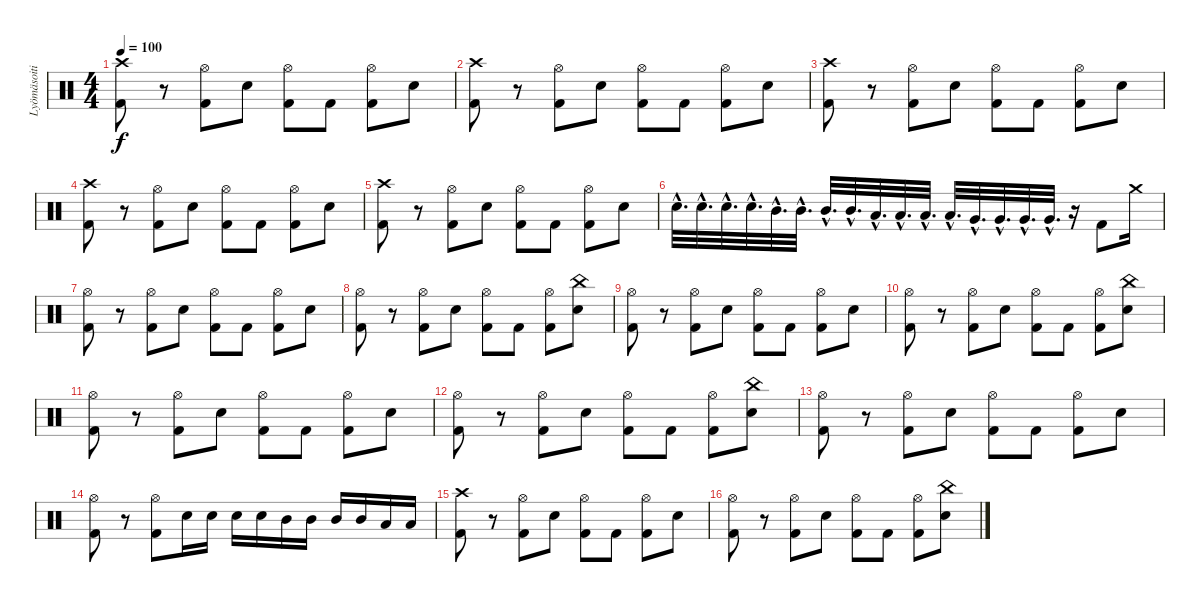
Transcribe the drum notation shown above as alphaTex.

\track ("Lyömäsoitin" "Lyömäsoiti") {instrument percussion}
\staff {score}
\articulation defaults
\ts (4 4)
\tempo 100
\clef neutral
\ks c
("Crash high (hit)" "Kick (hit) 2").8{dy f} r.8 ("Hi-Hat (open)" "Kick (hit) 2").8 "Snare (hit) 2".8 ("Hi-Hat (open)" "Kick (hit) 2").8 "Kick (hit) 2".8 ("Hi-Hat (open)" "Kick (hit) 2").8 "Snare (hit) 2".8 |
("Crash high (hit)" "Kick (hit) 2").8 r.8 ("Hi-Hat (open)" "Kick (hit) 2").8 "Snare (hit) 2".8 ("Hi-Hat (open)" "Kick (hit) 2").8 "Kick (hit) 2".8 ("Hi-Hat (open)" "Kick (hit) 2").8 "Snare (hit) 2".8 |
("Crash high (hit)" "Kick (hit) 2").8 r.8 ("Hi-Hat (open)" "Kick (hit) 2").8 "Snare (hit) 2".8 ("Hi-Hat (open)" "Kick (hit) 2").8 "Kick (hit) 2".8 ("Hi-Hat (open)" "Kick (hit) 2").8 "Snare (hit) 2".8 |
("Crash high (hit)" "Kick (hit) 2").8 r.8 ("Hi-Hat (open)" "Kick (hit) 2").8 "Snare (hit) 2".8 ("Hi-Hat (open)" "Kick (hit) 2").8 "Kick (hit) 2".8 ("Hi-Hat (open)" "Kick (hit) 2").8 "Snare (hit) 2".8 |
("Crash high (hit)" "Kick (hit) 2").8 r.8 ("Hi-Hat (open)" "Kick (hit) 2").8 "Snare (hit) 2".8 ("Hi-Hat (open)" "Kick (hit) 2").8 "Kick (hit) 2".8 ("Hi-Hat (open)" "Kick (hit) 2").8 "Snare (hit) 2".8 |
"Snare (hit) 2"{hac}.32{d} "Snare (hit) 2"{hac}.32{d} "Snare (hit) 2"{hac}.32{d} "Snare (hit) 2"{hac}.32{d} "Mid Tom (hit)"{hac}.32{d} "Mid Tom (hit)"{hac}.32{d} "Mid Tom (hit)"{hac}.32{d} "Mid Tom (hit)"{hac}.32{d} "Low Tom (hit)"{hac}.32{d} "Low Tom (hit)"{hac}.32{d} "Low Tom (hit)"{hac}.32{d} "Low Tom (hit)"{hac}.32{d} "Very Low Tom (hit)"{hac}.32{d} "Very Low Tom (hit)"{hac}.32{d} "Very Low Tom (hit)"{hac}.32{d} "Very Low Tom (hit)"{hac}.32{d} r.16 "Kick (hit) 2".8 "Crash medium (hit)".16 |
("Hi-Hat (open)" "Kick (hit) 2").8 r.8 ("Hi-Hat (open)" "Kick (hit) 2").8 "Snare (hit) 2".8 ("Hi-Hat (open)" "Kick (hit) 2").8 "Kick (hit) 2".8 ("Hi-Hat (open)" "Kick (hit) 2").8 "Snare (hit) 2".8 |
("Hi-Hat (open)" "Kick (hit) 2").8 r.8 ("Hi-Hat (open)" "Kick (hit) 2").8 "Snare (hit) 2".8 ("Hi-Hat (open)" "Kick (hit) 2").8 "Kick (hit) 2".8 ("Hi-Hat (open)" "Kick (hit) 2").8 ("China (hit)" "Snare (hit) 2").8 |
("Hi-Hat (open)" "Kick (hit) 2").8 r.8 ("Hi-Hat (open)" "Kick (hit) 2").8 "Snare (hit) 2".8 ("Hi-Hat (open)" "Kick (hit) 2").8 "Kick (hit) 2".8 ("Hi-Hat (open)" "Kick (hit) 2").8 "Snare (hit) 2".8 |
("Hi-Hat (open)" "Kick (hit) 2").8 r.8 ("Hi-Hat (open)" "Kick (hit) 2").8 "Snare (hit) 2".8 ("Hi-Hat (open)" "Kick (hit) 2").8 "Kick (hit) 2".8 ("Hi-Hat (open)" "Kick (hit) 2").8 ("China (hit)" "Snare (hit) 2").8 |
("Hi-Hat (open)" "Kick (hit) 2").8 r.8 ("Hi-Hat (open)" "Kick (hit) 2").8 "Snare (hit) 2".8 ("Hi-Hat (open)" "Kick (hit) 2").8 "Kick (hit) 2".8 ("Hi-Hat (open)" "Kick (hit) 2").8 "Snare (hit) 2".8 |
("Hi-Hat (open)" "Kick (hit) 2").8 r.8 ("Hi-Hat (open)" "Kick (hit) 2").8 "Snare (hit) 2".8 ("Hi-Hat (open)" "Kick (hit) 2").8 "Kick (hit) 2".8 ("Hi-Hat (open)" "Kick (hit) 2").8 ("China (hit)" "Snare (hit) 2").8 |
("Hi-Hat (open)" "Kick (hit) 2").8 r.8 ("Hi-Hat (open)" "Kick (hit) 2").8 "Snare (hit) 2".8 ("Hi-Hat (open)" "Kick (hit) 2").8 "Kick (hit) 2".8 ("Hi-Hat (open)" "Kick (hit) 2").8 "Snare (hit) 2".8 |
("Hi-Hat (open)" "Kick (hit) 2").8 r.8 ("Hi-Hat (open)" "Kick (hit) 2").8 "Snare (hit) 2".16 "Snare (hit) 2".16 "Snare (hit) 2".16 "Snare (hit) 2".16 "Mid Tom (hit)".16 "Mid Tom (hit)".16 "Mid Tom (hit)".16 "Mid Tom (hit)".16 "Low Tom (hit)".16 "Low Tom (hit)".16 |
("Crash high (hit)" "Kick (hit) 2").8 r.8 ("Hi-Hat (open)" "Kick (hit) 2").8 "Snare (hit) 2".8 ("Hi-Hat (open)" "Kick (hit) 2").8 "Kick (hit) 2".8 ("Hi-Hat (open)" "Kick (hit) 2").8 "Snare (hit) 2".8 |
("Hi-Hat (open)" "Kick (hit) 2").8 r.8 ("Hi-Hat (open)" "Kick (hit) 2").8 "Snare (hit) 2".8 ("Hi-Hat (open)" "Kick (hit) 2").8 "Kick (hit) 2".8 ("Hi-Hat (open)" "Kick (hit) 2").8 ("China (hit)" "Snare (hit) 2").8
